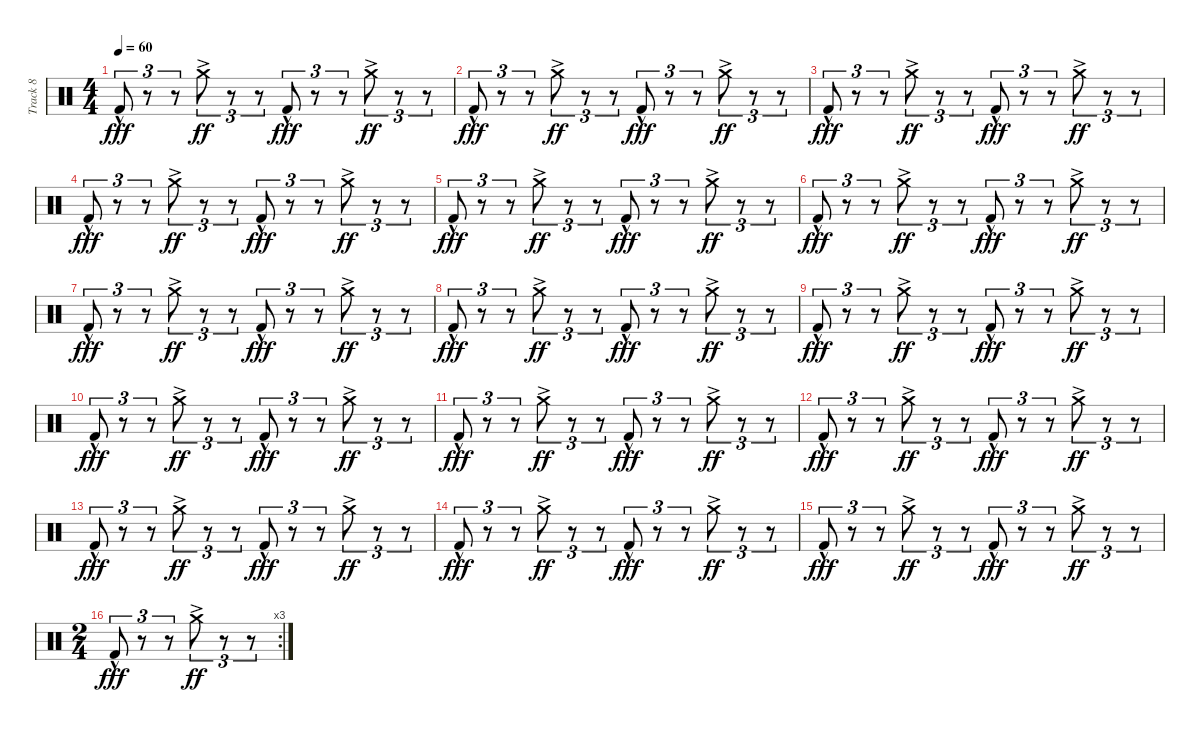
\track ("Track 8" "Track 8") {instrument percussion}
\staff {score}
\articulation defaults
\ts (4 4)
\tempo 60
\clef neutral
\ks c "Kick (hit) 2"{hac}.8{tu (3 2) dy fff}
r.8{tu (3 2)} r.8{tu (3 2)} "Crash medium (hit)"{ac}.8{tu (3 2) dy ff} r.8{tu (3 2)} r.8{tu (3 2)} "Kick (hit) 2"{hac}.8{tu (3 2) dy fff} r.8{tu (3 2)} r.8{tu (3 2)} "Crash medium (hit)"{ac}.8{tu (3 2) dy ff} r.8{tu (3 2)} r.8{tu (3 2)} |
"Kick (hit) 2"{hac}.8{tu (3 2) dy fff} r.8{tu (3 2)} r.8{tu (3 2)} "Crash medium (hit)"{ac}.8{tu (3 2) dy ff} r.8{tu (3 2)} r.8{tu (3 2)} "Kick (hit) 2"{hac}.8{tu (3 2) dy fff} r.8{tu (3 2)} r.8{tu (3 2)} "Crash medium (hit)"{ac}.8{tu (3 2) dy ff} r.8{tu (3 2)} r.8{tu (3 2)} |
"Kick (hit) 2"{hac}.8{tu (3 2) dy fff} r.8{tu (3 2)} r.8{tu (3 2)} "Crash medium (hit)"{ac}.8{tu (3 2) dy ff} r.8{tu (3 2)} r.8{tu (3 2)} "Kick (hit) 2"{hac}.8{tu (3 2) dy fff} r.8{tu (3 2)} r.8{tu (3 2)} "Crash medium (hit)"{ac}.8{tu (3 2) dy ff} r.8{tu (3 2)} r.8{tu (3 2)} |
"Kick (hit) 2"{hac}.8{tu (3 2) dy fff} r.8{tu (3 2)} r.8{tu (3 2)} "Crash medium (hit)"{ac}.8{tu (3 2) dy ff} r.8{tu (3 2)} r.8{tu (3 2)} "Kick (hit) 2"{hac}.8{tu (3 2) dy fff} r.8{tu (3 2)} r.8{tu (3 2)} "Crash medium (hit)"{ac}.8{tu (3 2) dy ff} r.8{tu (3 2)} r.8{tu (3 2)} |
"Kick (hit) 2"{hac}.8{tu (3 2) dy fff} r.8{tu (3 2)} r.8{tu (3 2)} "Crash medium (hit)"{ac}.8{tu (3 2) dy ff} r.8{tu (3 2)} r.8{tu (3 2)} "Kick (hit) 2"{hac}.8{tu (3 2) dy fff} r.8{tu (3 2)} r.8{tu (3 2)} "Crash medium (hit)"{ac}.8{tu (3 2) dy ff} r.8{tu (3 2)} r.8{tu (3 2)} |
"Kick (hit) 2"{hac}.8{tu (3 2) dy fff} r.8{tu (3 2)} r.8{tu (3 2)} "Crash medium (hit)"{ac}.8{tu (3 2) dy ff} r.8{tu (3 2)} r.8{tu (3 2)} "Kick (hit) 2"{hac}.8{tu (3 2) dy fff} r.8{tu (3 2)} r.8{tu (3 2)} "Crash medium (hit)"{ac}.8{tu (3 2) dy ff} r.8{tu (3 2)} r.8{tu (3 2)} |
"Kick (hit) 2"{hac}.8{tu (3 2) dy fff} r.8{tu (3 2)} r.8{tu (3 2)} "Crash medium (hit)"{ac}.8{tu (3 2) dy ff} r.8{tu (3 2)} r.8{tu (3 2)} "Kick (hit) 2"{hac}.8{tu (3 2) dy fff} r.8{tu (3 2)} r.8{tu (3 2)} "Crash medium (hit)"{ac}.8{tu (3 2) dy ff} r.8{tu (3 2)} r.8{tu (3 2)} |
"Kick (hit) 2"{hac}.8{tu (3 2) dy fff} r.8{tu (3 2)} r.8{tu (3 2)} "Crash medium (hit)"{ac}.8{tu (3 2) dy ff} r.8{tu (3 2)} r.8{tu (3 2)} "Kick (hit) 2"{hac}.8{tu (3 2) dy fff} r.8{tu (3 2)} r.8{tu (3 2)} "Crash medium (hit)"{ac}.8{tu (3 2) dy ff} r.8{tu (3 2)} r.8{tu (3 2)} |
"Kick (hit) 2"{hac}.8{tu (3 2) dy fff} r.8{tu (3 2)} r.8{tu (3 2)} "Crash medium (hit)"{ac}.8{tu (3 2) dy ff} r.8{tu (3 2)} r.8{tu (3 2)} "Kick (hit) 2"{hac}.8{tu (3 2) dy fff} r.8{tu (3 2)} r.8{tu (3 2)} "Crash medium (hit)"{ac}.8{tu (3 2) dy ff} r.8{tu (3 2)} r.8{tu (3 2)} |
"Kick (hit) 2"{hac}.8{tu (3 2) dy fff} r.8{tu (3 2)} r.8{tu (3 2)} "Crash medium (hit)"{ac}.8{tu (3 2) dy ff} r.8{tu (3 2)} r.8{tu (3 2)} "Kick (hit) 2"{hac}.8{tu (3 2) dy fff} r.8{tu (3 2)} r.8{tu (3 2)} "Crash medium (hit)"{ac}.8{tu (3 2) dy ff} r.8{tu (3 2)} r.8{tu (3 2)} |
"Kick (hit) 2"{hac}.8{tu (3 2) dy fff} r.8{tu (3 2)} r.8{tu (3 2)} "Crash medium (hit)"{ac}.8{tu (3 2) dy ff} r.8{tu (3 2)} r.8{tu (3 2)} "Kick (hit) 2"{hac}.8{tu (3 2) dy fff} r.8{tu (3 2)} r.8{tu (3 2)} "Crash medium (hit)"{ac}.8{tu (3 2) dy ff} r.8{tu (3 2)} r.8{tu (3 2)} |
"Kick (hit) 2"{hac}.8{tu (3 2) dy fff} r.8{tu (3 2)} r.8{tu (3 2)} "Crash medium (hit)"{ac}.8{tu (3 2) dy ff} r.8{tu (3 2)} r.8{tu (3 2)} "Kick (hit) 2"{hac}.8{tu (3 2) dy fff} r.8{tu (3 2)} r.8{tu (3 2)} "Crash medium (hit)"{ac}.8{tu (3 2) dy ff} r.8{tu (3 2)} r.8{tu (3 2)} |
"Kick (hit) 2"{hac}.8{tu (3 2) dy fff} r.8{tu (3 2)} r.8{tu (3 2)} "Crash medium (hit)"{ac}.8{tu (3 2) dy ff} r.8{tu (3 2)} r.8{tu (3 2)} "Kick (hit) 2"{hac}.8{tu (3 2) dy fff} r.8{tu (3 2)} r.8{tu (3 2)} "Crash medium (hit)"{ac}.8{tu (3 2) dy ff} r.8{tu (3 2)} r.8{tu (3 2)} |
"Kick (hit) 2"{hac}.8{tu (3 2) dy fff} r.8{tu (3 2)} r.8{tu (3 2)} "Crash medium (hit)"{ac}.8{tu (3 2) dy ff} r.8{tu (3 2)} r.8{tu (3 2)} "Kick (hit) 2"{hac}.8{tu (3 2) dy fff} r.8{tu (3 2)} r.8{tu (3 2)} "Crash medium (hit)"{ac}.8{tu (3 2) dy ff} r.8{tu (3 2)} r.8{tu (3 2)} |
"Kick (hit) 2"{hac}.8{tu (3 2) dy fff} r.8{tu (3 2)} r.8{tu (3 2)} "Crash medium (hit)"{ac}.8{tu (3 2) dy ff} r.8{tu (3 2)} r.8{tu (3 2)} "Kick (hit) 2"{hac}.8{tu (3 2) dy fff} r.8{tu (3 2)} r.8{tu (3 2)} "Crash medium (hit)"{ac}.8{tu (3 2) dy ff} r.8{tu (3 2)} r.8{tu (3 2)} |
\rc 3
\ts (2 4)
"Kick (hit) 2"{hac}.8{tu (3 2) dy fff} r.8{tu (3 2)} r.8{tu (3 2)} "Crash medium (hit)"{ac}.8{tu (3 2) dy ff} r.8{tu (3 2)} r.8{tu (3 2)}
